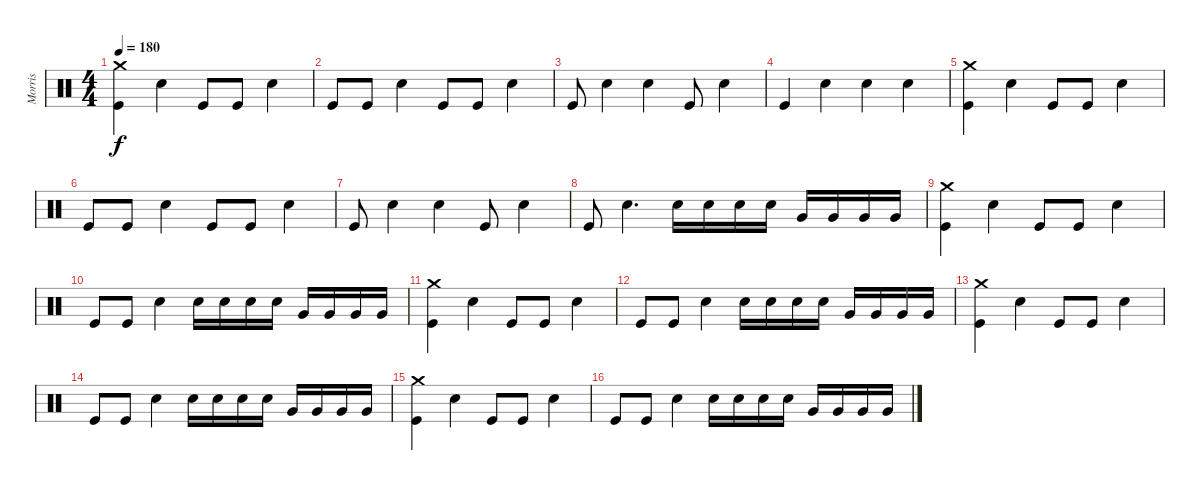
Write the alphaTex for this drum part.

\track ("Morris" "Morris") {instrument percussion}
\staff {score}
\articulation defaults
\ts (4 4)
\tempo 180
\clef neutral
\ks c
("Crash medium (hit)" "Kick (hit)").4{dy f} "Electric Snare (hit)".4 "Kick (hit)".8 "Kick (hit)".8 "Electric Snare (hit)".4 |
"Kick (hit)".8 "Kick (hit)".8 "Electric Snare (hit)".4 "Kick (hit)".8 "Kick (hit)".8 "Electric Snare (hit)".4 |
"Kick (hit)".8 "Electric Snare (hit)".4 "Electric Snare (hit)".4 "Kick (hit)".8 "Electric Snare (hit)".4 |
"Kick (hit)".4 "Electric Snare (hit)".4 "Electric Snare (hit)".4 "Electric Snare (hit)".4 |
("Crash medium (hit)" "Kick (hit)").4 "Electric Snare (hit)".4 "Kick (hit)".8 "Kick (hit)".8 "Electric Snare (hit)".4 |
"Kick (hit)".8 "Kick (hit)".8 "Electric Snare (hit)".4 "Kick (hit)".8 "Kick (hit)".8 "Electric Snare (hit)".4 |
"Kick (hit)".8 "Electric Snare (hit)".4 "Electric Snare (hit)".4 "Kick (hit)".8 "Electric Snare (hit)".4 |
"Kick (hit)".8 "Electric Snare (hit)".4{d} "Electric Snare (hit)".16 "Electric Snare (hit)".16 "Electric Snare (hit)".16 "Electric Snare (hit)".16 "Very Low Tom (hit)".16 "Very Low Tom (hit)".16 "Very Low Tom (hit)".16 "Very Low Tom (hit)".16 |
("Crash medium (hit)" "Kick (hit)").4 "Electric Snare (hit)".4 "Kick (hit)".8 "Kick (hit)".8 "Electric Snare (hit)".4 |
"Kick (hit)".8 "Kick (hit)".8 "Electric Snare (hit)".4 "Electric Snare (hit)".16 "Electric Snare (hit)".16 "Electric Snare (hit)".16 "Electric Snare (hit)".16 "Very Low Tom (hit)".16 "Very Low Tom (hit)".16 "Very Low Tom (hit)".16 "Very Low Tom (hit)".16 |
("Crash medium (hit)" "Kick (hit)").4 "Electric Snare (hit)".4 "Kick (hit)".8 "Kick (hit)".8 "Electric Snare (hit)".4 |
"Kick (hit)".8 "Kick (hit)".8 "Electric Snare (hit)".4 "Electric Snare (hit)".16 "Electric Snare (hit)".16 "Electric Snare (hit)".16 "Electric Snare (hit)".16 "Very Low Tom (hit)".16 "Very Low Tom (hit)".16 "Very Low Tom (hit)".16 "Very Low Tom (hit)".16 |
("Crash medium (hit)" "Kick (hit)").4 "Electric Snare (hit)".4 "Kick (hit)".8 "Kick (hit)".8 "Electric Snare (hit)".4 |
"Kick (hit)".8 "Kick (hit)".8 "Electric Snare (hit)".4 "Electric Snare (hit)".16 "Electric Snare (hit)".16 "Electric Snare (hit)".16 "Electric Snare (hit)".16 "Very Low Tom (hit)".16 "Very Low Tom (hit)".16 "Very Low Tom (hit)".16 "Very Low Tom (hit)".16 |
("Crash medium (hit)" "Kick (hit)").4 "Electric Snare (hit)".4 "Kick (hit)".8 "Kick (hit)".8 "Electric Snare (hit)".4 |
"Kick (hit)".8 "Kick (hit)".8 "Electric Snare (hit)".4 "Electric Snare (hit)".16 "Electric Snare (hit)".16 "Electric Snare (hit)".16 "Electric Snare (hit)".16 "Very Low Tom (hit)".16 "Very Low Tom (hit)".16 "Very Low Tom (hit)".16 "Very Low Tom (hit)".16
